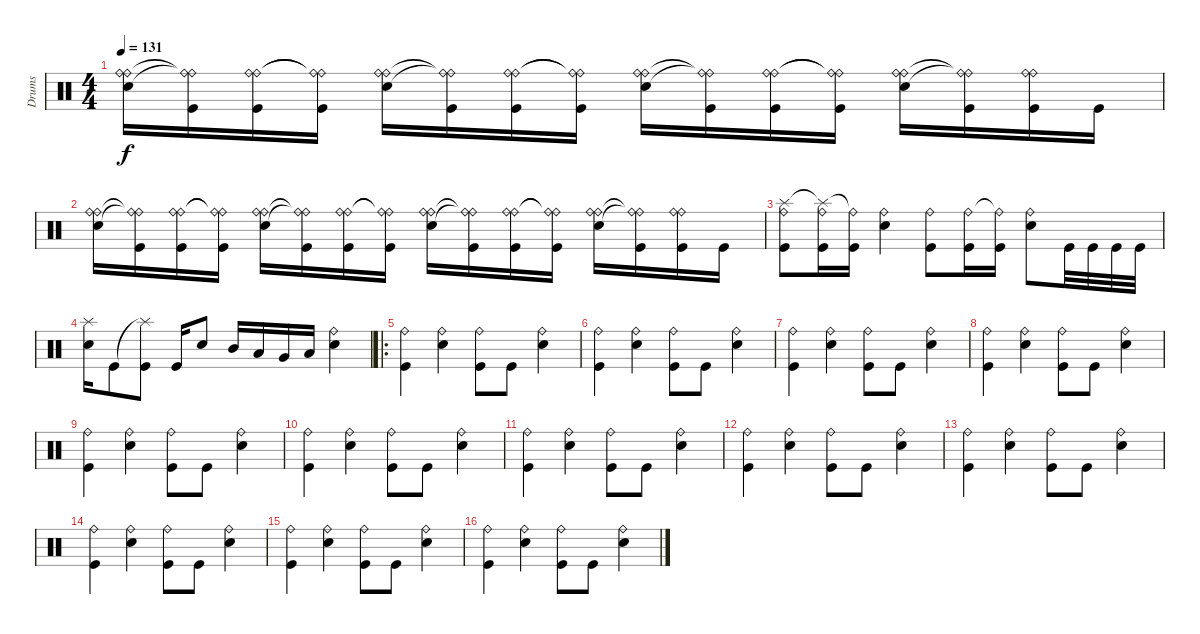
\track ("Drums" "Drums") {instrument percussion}
\staff {score}
\articulation defaults
\ts (4 4)
\tempo 131
\clef neutral
\ks c
("Electric Snare (hit)" "Ride (bell)" "Ride (bell)").16{dy f} ("Ride (bell)"{t} "Ride (bell)"{t} "Kick (hit)").16 ("Ride (bell)" "Ride (bell)" "Kick (hit)").16 ("Ride (bell)"{t} "Ride (bell)"{t} "Kick (hit)").16 ("Electric Snare (hit)" "Ride (bell)" "Ride (bell)").16 ("Ride (bell)"{t} "Ride (bell)"{t} "Kick (hit)").16 ("Ride (bell)" "Ride (bell)" "Kick (hit)").16 ("Ride (bell)"{t} "Ride (bell)"{t} "Kick (hit)").16 ("Electric Snare (hit)" "Ride (bell)" "Ride (bell)").16 ("Ride (bell)"{t} "Ride (bell)"{t} "Kick (hit)").16 ("Ride (bell)" "Ride (bell)" "Kick (hit)").16 ("Ride (bell)"{t} "Ride (bell)"{t} "Kick (hit)").16 ("Electric Snare (hit)" "Ride (bell)" "Ride (bell)").16 ("Ride (bell)"{t} "Ride (bell)"{t} "Kick (hit)").16 ("Ride (bell)" "Ride (bell)" "Kick (hit)").16 "Kick (hit)".16 |
("Electric Snare (hit)" "Ride (bell)" "Ride (bell)").16 ("Ride (bell)"{t} "Ride (bell)"{t} "Kick (hit)").16 ("Ride (bell)" "Ride (bell)" "Kick (hit)").16 ("Ride (bell)"{t} "Ride (bell)"{t} "Kick (hit)").16 ("Electric Snare (hit)" "Ride (bell)" "Ride (bell)").16 ("Ride (bell)"{t} "Ride (bell)"{t} "Kick (hit)").16 ("Ride (bell)" "Ride (bell)" "Kick (hit)").16 ("Ride (bell)"{t} "Ride (bell)"{t} "Kick (hit)").16 ("Electric Snare (hit)" "Ride (bell)" "Ride (bell)").16 ("Ride (bell)"{t} "Ride (bell)"{t} "Kick (hit)").16 ("Ride (bell)" "Ride (bell)" "Kick (hit)").16 ("Ride (bell)"{t} "Ride (bell)"{t} "Kick (hit)").16 ("Electric Snare (hit)" "Ride (bell)" "Ride (bell)").16 ("Ride (bell)"{t} "Ride (bell)"{t} "Kick (hit)").16 ("Ride (bell)" "Ride (bell)" "Kick (hit)").16 "Kick (hit)".16 |
("Splash (hit)" "Ride (bell)" "Kick (hit)").8 ("Splash (hit)"{t} "Ride (bell)" "Kick (hit)").16 ("Ride (bell)"{t} "Kick (hit)").16 ("Snare (hit) 2" "Ride (bell)").4 ("Ride (bell)" "Kick (hit)").8 ("Ride (bell)" "Kick (hit)").16 ("Ride (bell)"{t} "Kick (hit)").16 ("Snare (hit) 2" "Ride (bell)").8 "Kick (hit)".32 "Kick (hit)".32 "Kick (hit)".32 "Kick (hit)".32 |
("Splash (hit)" "Snare (hit) 2").16 "Kick (hit)".8 ("Splash (hit)"{t} "Kick (hit)").8 "Kick (hit)".16 "Snare (hit) 2".8 "Mid Tom (hit)".16 "Low Tom (hit)".16 "Very Low Tom (hit)".16 "Low Floor Tom (hit)".16 ("Ride (bell)" "Snare (hit) 2").4 |
\ro
("Ride (bell)" "Kick (hit)").4 ("Ride (bell)" "Snare (hit) 2").4 ("Ride (bell)" "Kick (hit)").8 "Kick (hit)".8 ("Ride (bell)" "Snare (hit) 2").4 |
("Ride (bell)" "Kick (hit)").4 ("Ride (bell)" "Snare (hit) 2").4 ("Ride (bell)" "Kick (hit)").8 "Kick (hit)".8 ("Ride (bell)" "Snare (hit) 2").4 |
("Ride (bell)" "Kick (hit)").4 ("Ride (bell)" "Snare (hit) 2").4 ("Ride (bell)" "Kick (hit)").8 "Kick (hit)".8 ("Ride (bell)" "Snare (hit) 2").4 |
("Ride (bell)" "Kick (hit)").4 ("Ride (bell)" "Snare (hit) 2").4 ("Ride (bell)" "Kick (hit)").8 "Kick (hit)".8 ("Ride (bell)" "Snare (hit) 2").4 |
("Ride (bell)" "Kick (hit)").4 ("Ride (bell)" "Snare (hit) 2").4 ("Ride (bell)" "Kick (hit)").8 "Kick (hit)".8 ("Ride (bell)" "Snare (hit) 2").4 |
("Ride (bell)" "Kick (hit)").4 ("Ride (bell)" "Snare (hit) 2").4 ("Ride (bell)" "Kick (hit)").8 "Kick (hit)".8 ("Ride (bell)" "Snare (hit) 2").4 |
("Ride (bell)" "Kick (hit)").4 ("Ride (bell)" "Snare (hit) 2").4 ("Ride (bell)" "Kick (hit)").8 "Kick (hit)".8 ("Ride (bell)" "Snare (hit) 2").4 |
("Ride (bell)" "Kick (hit)").4 ("Ride (bell)" "Snare (hit) 2").4 ("Ride (bell)" "Kick (hit)").8 "Kick (hit)".8 ("Ride (bell)" "Snare (hit) 2").4 |
("Ride (bell)" "Kick (hit)").4 ("Ride (bell)" "Snare (hit) 2").4 ("Ride (bell)" "Kick (hit)").8 "Kick (hit)".8 ("Ride (bell)" "Snare (hit) 2").4 |
("Ride (bell)" "Kick (hit)").4 ("Ride (bell)" "Snare (hit) 2").4 ("Ride (bell)" "Kick (hit)").8 "Kick (hit)".8 ("Ride (bell)" "Snare (hit) 2").4 |
("Ride (bell)" "Kick (hit)").4 ("Ride (bell)" "Snare (hit) 2").4 ("Ride (bell)" "Kick (hit)").8 "Kick (hit)".8 ("Ride (bell)" "Snare (hit) 2").4 |
("Ride (bell)" "Kick (hit)").4 ("Ride (bell)" "Snare (hit) 2").4 ("Ride (bell)" "Kick (hit)").8 "Kick (hit)".8 ("Ride (bell)" "Snare (hit) 2").4
